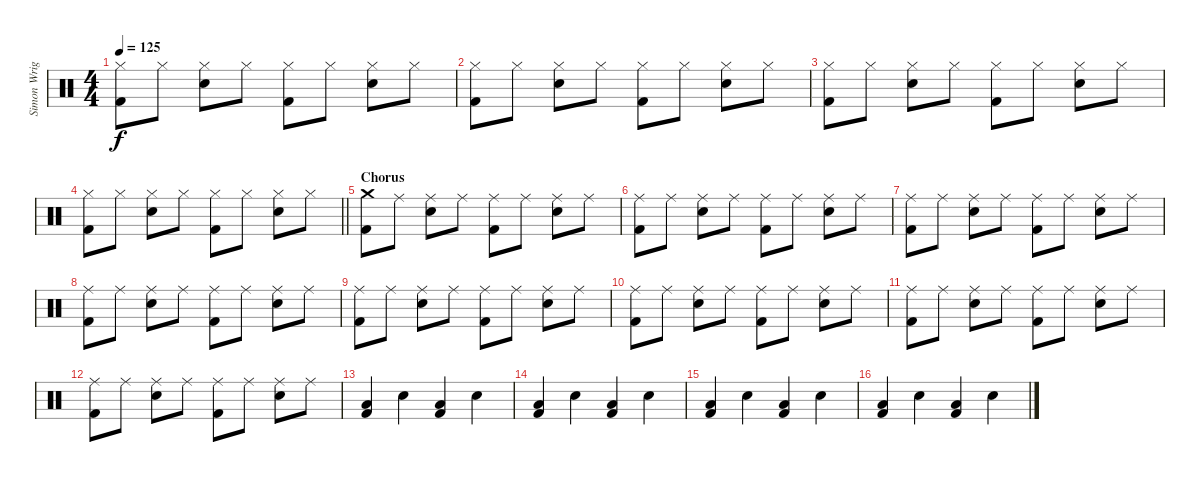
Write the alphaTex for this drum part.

\track ("Simon Wright" "Simon Wrig") {instrument percussion}
\staff {score}
\articulation defaults
\ts (4 4)
\tempo 125
\clef neutral
\ks c
("Kick (hit) 2" "Hi-Hat (closed)").8{dy f} "Hi-Hat (closed)".8 ("Snare (hit) 2" "Hi-Hat (closed)").8 "Hi-Hat (closed)".8 ("Kick (hit) 2" "Hi-Hat (closed)").8 "Hi-Hat (closed)".8 ("Snare (hit) 2" "Hi-Hat (closed)").8 "Hi-Hat (closed)".8 |
("Kick (hit) 2" "Hi-Hat (closed)").8 "Hi-Hat (closed)".8 ("Snare (hit) 2" "Hi-Hat (closed)").8 "Hi-Hat (closed)".8 ("Kick (hit) 2" "Hi-Hat (closed)").8 "Hi-Hat (closed)".8 ("Snare (hit) 2" "Hi-Hat (closed)").8 "Hi-Hat (closed)".8 |
("Kick (hit) 2" "Hi-Hat (closed)").8 "Hi-Hat (closed)".8 ("Snare (hit) 2" "Hi-Hat (closed)").8 "Hi-Hat (closed)".8 ("Kick (hit) 2" "Hi-Hat (closed)").8 "Hi-Hat (closed)".8 ("Snare (hit) 2" "Hi-Hat (closed)").8 "Hi-Hat (closed)".8 |
\barLineRight lightlight
("Kick (hit) 2" "Hi-Hat (closed)").8 "Hi-Hat (closed)".8 ("Snare (hit) 2" "Hi-Hat (closed)").8 "Hi-Hat (closed)".8 ("Kick (hit) 2" "Hi-Hat (closed)").8 "Hi-Hat (closed)".8 ("Snare (hit) 2" "Hi-Hat (closed)").8 "Hi-Hat (closed)".8 |
\section ("" "Chorus")
("Kick (hit) 2" "Crash medium (hit)").8 "Ride (middle)".8 ("Snare (hit) 2" "Ride (middle)").8 "Ride (middle)".8 ("Kick (hit) 2" "Ride (middle)").8 "Ride (middle)".8 ("Snare (hit) 2" "Ride (middle)").8 "Ride (middle)".8 |
("Kick (hit) 2" "Ride (middle)").8 "Ride (middle)".8 ("Snare (hit) 2" "Ride (middle)").8 "Ride (middle)".8 ("Kick (hit) 2" "Ride (middle)").8 "Ride (middle)".8 ("Snare (hit) 2" "Ride (middle)").8 "Ride (middle)".8 |
("Kick (hit) 2" "Ride (middle)").8 "Ride (middle)".8 ("Snare (hit) 2" "Ride (middle)").8 "Ride (middle)".8 ("Kick (hit) 2" "Ride (middle)").8 "Ride (middle)".8 ("Snare (hit) 2" "Ride (middle)").8 "Ride (middle)".8 |
("Kick (hit) 2" "Ride (middle)").8 "Ride (middle)".8 ("Snare (hit) 2" "Ride (middle)").8 "Ride (middle)".8 ("Kick (hit) 2" "Ride (middle)").8 "Ride (middle)".8 ("Snare (hit) 2" "Ride (middle)").8 "Ride (middle)".8 |
("Kick (hit) 2" "Ride (middle)").8 "Ride (middle)".8 ("Snare (hit) 2" "Ride (middle)").8 "Ride (middle)".8 ("Kick (hit) 2" "Ride (middle)").8 "Ride (middle)".8 ("Snare (hit) 2" "Ride (middle)").8 "Ride (middle)".8 |
("Kick (hit) 2" "Ride (middle)").8 "Ride (middle)".8 ("Snare (hit) 2" "Ride (middle)").8 "Ride (middle)".8 ("Kick (hit) 2" "Ride (middle)").8 "Ride (middle)".8 ("Snare (hit) 2" "Ride (middle)").8 "Ride (middle)".8 |
("Kick (hit) 2" "Ride (middle)").8 "Ride (middle)".8 ("Snare (hit) 2" "Ride (middle)").8 "Ride (middle)".8 ("Kick (hit) 2" "Ride (middle)").8 "Ride (middle)".8 ("Snare (hit) 2" "Ride (middle)").8 "Ride (middle)".8 |
("Kick (hit) 2" "Ride (middle)").8 "Ride (middle)".8 ("Snare (hit) 2" "Ride (middle)").8 "Ride (middle)".8 ("Kick (hit) 2" "Ride (middle)").8 "Ride (middle)".8 ("Snare (hit) 2" "Ride (middle)").8 "Ride (middle)".8 |
("Kick (hit) 2" "Low Floor Tom (hit)").4 "Snare (hit) 2".4 ("Kick (hit) 2" "Low Floor Tom (hit)").4 "Snare (hit) 2".4 |
("Kick (hit) 2" "Low Floor Tom (hit)").4 "Snare (hit) 2".4 ("Kick (hit) 2" "Low Floor Tom (hit)").4 "Snare (hit) 2".4 |
("Kick (hit) 2" "Low Floor Tom (hit)").4 "Snare (hit) 2".4 ("Kick (hit) 2" "Low Floor Tom (hit)").4 "Snare (hit) 2".4 |
("Kick (hit) 2" "Low Floor Tom (hit)").4 "Snare (hit) 2".4 ("Kick (hit) 2" "Low Floor Tom (hit)").4 "Snare (hit) 2".4
